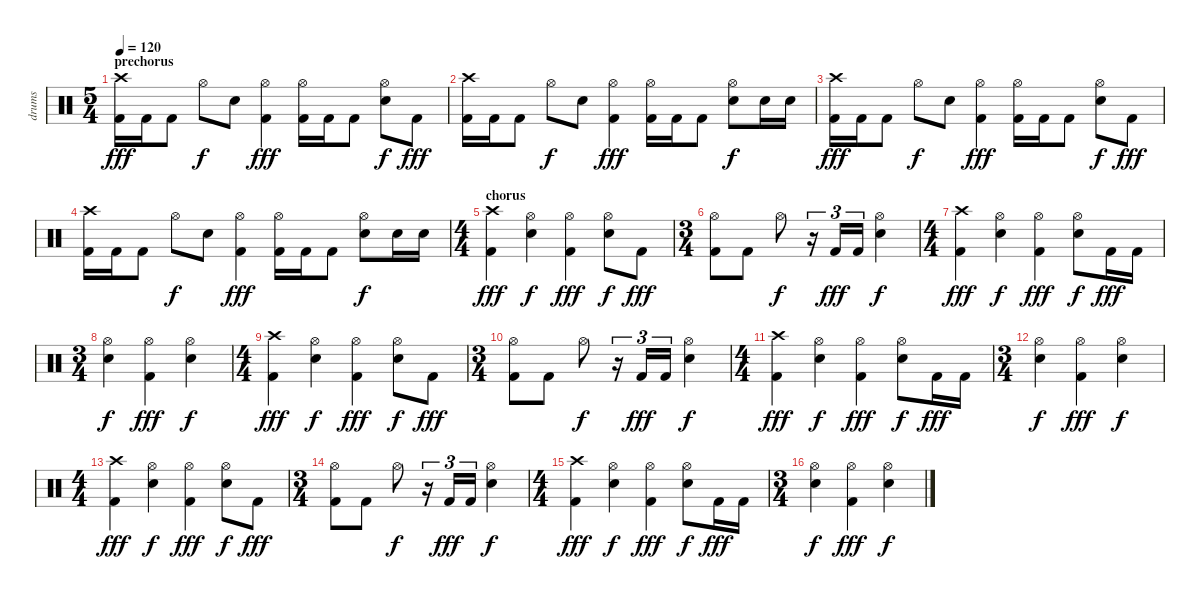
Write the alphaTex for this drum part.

\track ("drums" "drums") {instrument percussion}
\staff {score}
\articulation defaults
\ts (5 4)
\section ("" "prechorus")
\tempo 120
\clef neutral
\ks c
("Crash high (hit)" "Kick (hit) 2").16{dy fff} "Kick (hit) 2".16 "Kick (hit) 2".8 "Hi-Hat (open)".8{dy f} "Snare (hit) 2".8 ("Hi-Hat (open)" "Kick (hit) 2").4{dy fff} ("Hi-Hat (open)" "Kick (hit) 2").16 "Kick (hit) 2".16 "Kick (hit) 2".8 ("Hi-Hat (open)" "Snare (hit) 2").8{dy f} "Kick (hit) 2".8{dy fff} |
("Crash high (hit)" "Kick (hit) 2").16 "Kick (hit) 2".16 "Kick (hit) 2".8 "Hi-Hat (open)".8{dy f} "Snare (hit) 2".8 ("Hi-Hat (open)" "Kick (hit) 2").4{dy fff} ("Hi-Hat (open)" "Kick (hit) 2").16 "Kick (hit) 2".16 "Kick (hit) 2".8 ("Hi-Hat (open)" "Snare (hit) 2").8{dy f} "Snare (hit) 2".16 "Snare (hit) 2".16 |
("Crash high (hit)" "Kick (hit) 2").16{dy fff} "Kick (hit) 2".16 "Kick (hit) 2".8 "Hi-Hat (open)".8{dy f} "Snare (hit) 2".8 ("Hi-Hat (open)" "Kick (hit) 2").4{dy fff} ("Hi-Hat (open)" "Kick (hit) 2").16 "Kick (hit) 2".16 "Kick (hit) 2".8 ("Hi-Hat (open)" "Snare (hit) 2").8{dy f} "Kick (hit) 2".8{dy fff} |
("Crash high (hit)" "Kick (hit) 2").16 "Kick (hit) 2".16 "Kick (hit) 2".8 "Hi-Hat (open)".8{dy f} "Snare (hit) 2".8 ("Hi-Hat (open)" "Kick (hit) 2").4{dy fff} ("Hi-Hat (open)" "Kick (hit) 2").16 "Kick (hit) 2".16 "Kick (hit) 2".8 ("Hi-Hat (open)" "Snare (hit) 2").8{dy f} "Snare (hit) 2".16 "Snare (hit) 2".16 |
\ts (4 4)
\section ("" "chorus")
("Crash high (hit)" "Kick (hit) 2").4{dy fff} ("Hi-Hat (open)" "Snare (hit) 2").4{dy f} ("Hi-Hat (open)" "Kick (hit) 2").4{dy fff} ("Hi-Hat (open)" "Snare (hit) 2").8{dy f} "Kick (hit) 2".8{dy fff} |
\ts (3 4)
("Hi-Hat (open)" "Kick (hit) 2").8 "Kick (hit) 2".8 "Hi-Hat (open)".8{dy f} r.16{tu (3 2)} "Kick (hit) 2".16{tu (3 2) dy fff} "Kick (hit) 2".16{tu (3 2)} ("Hi-Hat (open)" "Snare (hit) 2").4{dy f} |
\ts (4 4)
("Crash high (hit)" "Kick (hit) 2").4{dy fff} ("Hi-Hat (open)" "Snare (hit) 2").4{dy f} ("Hi-Hat (open)" "Kick (hit) 2").4{dy fff} ("Hi-Hat (open)" "Snare (hit) 2").8{dy f} "Kick (hit) 2".16{dy fff} "Kick (hit) 2".16 |
\ts (3 4)
("Hi-Hat (open)" "Snare (hit) 2").4{dy f} ("Hi-Hat (open)" "Kick (hit) 2").4{dy fff} ("Hi-Hat (open)" "Snare (hit) 2").4{dy f} |
\ts (4 4)
("Crash high (hit)" "Kick (hit) 2").4{dy fff} ("Hi-Hat (open)" "Snare (hit) 2").4{dy f} ("Hi-Hat (open)" "Kick (hit) 2").4{dy fff} ("Hi-Hat (open)" "Snare (hit) 2").8{dy f} "Kick (hit) 2".8{dy fff} |
\ts (3 4)
("Hi-Hat (open)" "Kick (hit) 2").8 "Kick (hit) 2".8 "Hi-Hat (open)".8{dy f} r.16{tu (3 2)} "Kick (hit) 2".16{tu (3 2) dy fff} "Kick (hit) 2".16{tu (3 2)} ("Hi-Hat (open)" "Snare (hit) 2").4{dy f} |
\ts (4 4)
("Crash high (hit)" "Kick (hit) 2").4{dy fff} ("Hi-Hat (open)" "Snare (hit) 2").4{dy f} ("Hi-Hat (open)" "Kick (hit) 2").4{dy fff} ("Hi-Hat (open)" "Snare (hit) 2").8{dy f} "Kick (hit) 2".16{dy fff} "Kick (hit) 2".16 |
\ts (3 4)
("Hi-Hat (open)" "Snare (hit) 2").4{dy f} ("Hi-Hat (open)" "Kick (hit) 2").4{dy fff} ("Hi-Hat (open)" "Snare (hit) 2").4{dy f} |
\ts (4 4)
("Crash high (hit)" "Kick (hit) 2").4{dy fff} ("Hi-Hat (open)" "Snare (hit) 2").4{dy f} ("Hi-Hat (open)" "Kick (hit) 2").4{dy fff} ("Hi-Hat (open)" "Snare (hit) 2").8{dy f} "Kick (hit) 2".8{dy fff} |
\ts (3 4)
("Hi-Hat (open)" "Kick (hit) 2").8 "Kick (hit) 2".8 "Hi-Hat (open)".8{dy f} r.16{tu (3 2)} "Kick (hit) 2".16{tu (3 2) dy fff} "Kick (hit) 2".16{tu (3 2)} ("Hi-Hat (open)" "Snare (hit) 2").4{dy f} |
\ts (4 4)
("Crash high (hit)" "Kick (hit) 2").4{dy fff} ("Hi-Hat (open)" "Snare (hit) 2").4{dy f} ("Hi-Hat (open)" "Kick (hit) 2").4{dy fff} ("Hi-Hat (open)" "Snare (hit) 2").8{dy f} "Kick (hit) 2".16{dy fff} "Kick (hit) 2".16 |
\ts (3 4)
("Hi-Hat (open)" "Snare (hit) 2").4{dy f} ("Hi-Hat (open)" "Kick (hit) 2").4{dy fff} ("Hi-Hat (open)" "Snare (hit) 2").4{dy f}
